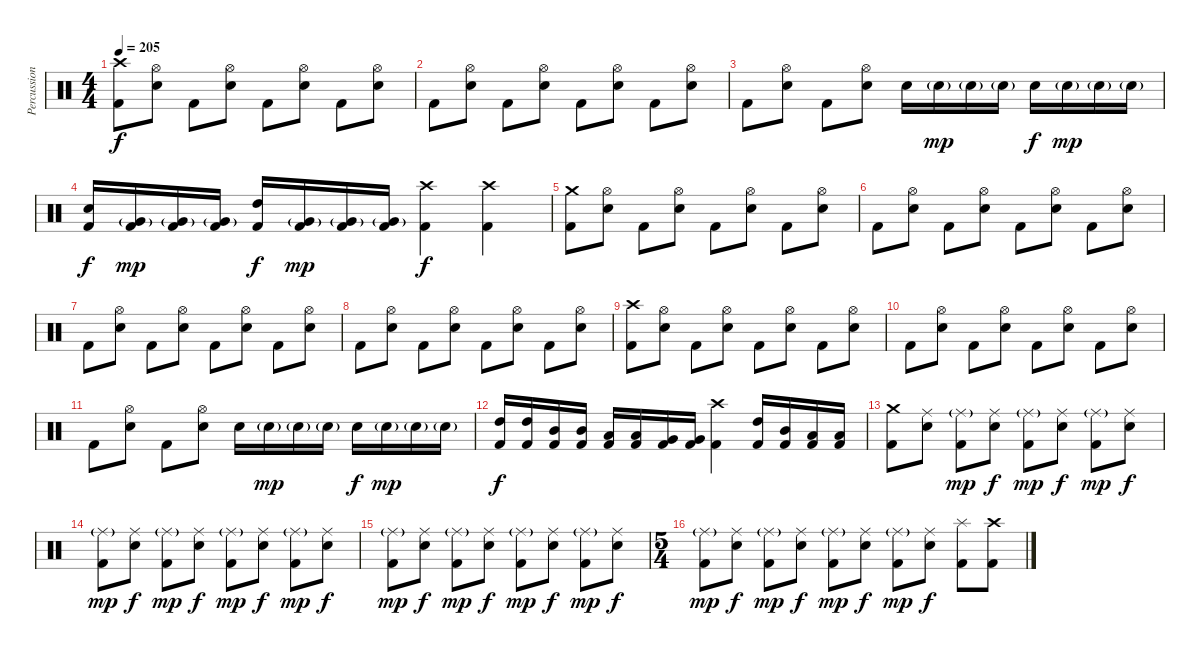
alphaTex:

\track ("Percussions" "Percussion") {instrument percussion}
\staff {score}
\articulation defaults
\ts (4 4)
\tempo 205
\clef neutral
\ks c
("Crash high (hit)" "Kick (hit) 2").8{dy f} ("Hi-Hat (open)" "Electric Snare (hit)").8 "Kick (hit) 2".8 ("Hi-Hat (open)" "Electric Snare (hit)").8 "Kick (hit) 2".8 ("Hi-Hat (open)" "Electric Snare (hit)").8 "Kick (hit) 2".8 ("Hi-Hat (open)" "Electric Snare (hit)").8 |
"Kick (hit) 2".8 ("Hi-Hat (open)" "Electric Snare (hit)").8 "Kick (hit) 2".8 ("Hi-Hat (open)" "Electric Snare (hit)").8 "Kick (hit) 2".8 ("Hi-Hat (open)" "Electric Snare (hit)").8 "Kick (hit) 2".8 ("Hi-Hat (open)" "Electric Snare (hit)").8 |
"Kick (hit) 2".8 ("Hi-Hat (open)" "Electric Snare (hit)").8 "Kick (hit) 2".8 ("Hi-Hat (open)" "Electric Snare (hit)").8 "Electric Snare (hit)".16 "Electric Snare (hit)"{g}.16{dy mp} "Electric Snare (hit)"{g}.16 "Electric Snare (hit)"{g}.16 "Electric Snare (hit)".16{dy f} "Electric Snare (hit)"{g}.16{dy mp} "Electric Snare (hit)"{g}.16 "Electric Snare (hit)"{g}.16 |
("Electric Snare (hit)" "Kick (hit) 2").16{dy f} ("Very Low Tom (hit)"{g} "Kick (hit) 2").16{dy mp} ("Very Low Tom (hit)"{g} "Kick (hit) 2").16 ("Very Low Tom (hit)"{g} "Kick (hit) 2").16 ("High Tom (hit)" "Kick (hit) 2").16{dy f} ("Very Low Tom (hit)"{g} "Kick (hit) 2").16{dy mp} ("Very Low Tom (hit)"{g} "Kick (hit) 2").16 ("Very Low Tom (hit)"{g} "Kick (hit) 2").16 ("Crash high (hit)" "Kick (hit) 2").4{dy f} ("Crash high (hit)" "Kick (hit) 2").4 |
("Crash medium (hit)" "Kick (hit) 2").8 ("Hi-Hat (open)" "Electric Snare (hit)").8 "Kick (hit) 2".8 ("Hi-Hat (open)" "Electric Snare (hit)").8 "Kick (hit) 2".8 ("Hi-Hat (open)" "Electric Snare (hit)").8 "Kick (hit) 2".8 ("Hi-Hat (open)" "Electric Snare (hit)").8 |
"Kick (hit) 2".8 ("Hi-Hat (open)" "Electric Snare (hit)").8 "Kick (hit) 2".8 ("Hi-Hat (open)" "Electric Snare (hit)").8 "Kick (hit) 2".8 ("Hi-Hat (open)" "Electric Snare (hit)").8 "Kick (hit) 2".8 ("Hi-Hat (open)" "Electric Snare (hit)").8 |
"Kick (hit) 2".8 ("Hi-Hat (open)" "Electric Snare (hit)").8 "Kick (hit) 2".8 ("Hi-Hat (open)" "Electric Snare (hit)").8 "Kick (hit) 2".8 ("Hi-Hat (open)" "Electric Snare (hit)").8 "Kick (hit) 2".8 ("Hi-Hat (open)" "Electric Snare (hit)").8 |
"Kick (hit) 2".8 ("Hi-Hat (open)" "Electric Snare (hit)").8 "Kick (hit) 2".8 ("Hi-Hat (open)" "Electric Snare (hit)").8 "Kick (hit) 2".8 ("Hi-Hat (open)" "Electric Snare (hit)").8 "Kick (hit) 2".8 ("Hi-Hat (open)" "Electric Snare (hit)").8 |
("Crash high (hit)" "Kick (hit) 2").8 ("Hi-Hat (open)" "Electric Snare (hit)").8 "Kick (hit) 2".8 ("Hi-Hat (open)" "Electric Snare (hit)").8 "Kick (hit) 2".8 ("Hi-Hat (open)" "Electric Snare (hit)").8 "Kick (hit) 2".8 ("Hi-Hat (open)" "Electric Snare (hit)").8 |
"Kick (hit) 2".8 ("Hi-Hat (open)" "Electric Snare (hit)").8 "Kick (hit) 2".8 ("Hi-Hat (open)" "Electric Snare (hit)").8 "Kick (hit) 2".8 ("Hi-Hat (open)" "Electric Snare (hit)").8 "Kick (hit) 2".8 ("Hi-Hat (open)" "Electric Snare (hit)").8 |
"Kick (hit) 2".8 ("Hi-Hat (open)" "Electric Snare (hit)").8 "Kick (hit) 2".8 ("Hi-Hat (open)" "Electric Snare (hit)").8 "Electric Snare (hit)".16 "Electric Snare (hit)"{g}.16{dy mp} "Electric Snare (hit)"{g}.16 "Electric Snare (hit)"{g}.16 "Electric Snare (hit)".16{dy f} "Electric Snare (hit)"{g}.16{dy mp} "Electric Snare (hit)"{g}.16 "Electric Snare (hit)"{g}.16 |
("High Tom (hit)" "Kick (hit) 2").16{dy f} ("High Tom (hit)" "Kick (hit) 2").16 ("Mid Tom (hit)" "Kick (hit) 2").16 ("Mid Tom (hit)" "Kick (hit) 2").16 ("Low Tom (hit)" "Kick (hit) 2").16 ("Low Tom (hit)" "Kick (hit) 2").16 ("Very Low Tom (hit)" "Kick (hit) 2").16 ("Very Low Tom (hit)" "Kick (hit) 2").16 ("Crash high (hit)" "Kick (hit) 2").4 ("High Tom (hit)" "Kick (hit) 2").16 ("Mid Tom (hit)" "Kick (hit) 2").16 ("Low Tom (hit)" "Kick (hit) 2").16 ("Low Tom (hit)" "Kick (hit) 2").16 |
("Crash medium (hit)" "Kick (hit) 2").8 ("Ride (middle)" "Electric Snare (hit)").8 ("Ride (middle)"{g} "Kick (hit) 2").8{dy mp} ("Ride (middle)" "Electric Snare (hit)").8{dy f} ("Ride (middle)"{g} "Kick (hit) 2").8{dy mp} ("Ride (middle)" "Electric Snare (hit)").8{dy f} ("Ride (middle)"{g} "Kick (hit) 2").8{dy mp} ("Ride (middle)" "Electric Snare (hit)").8{dy f} |
("Ride (middle)"{g} "Kick (hit) 2").8{dy mp} ("Ride (middle)" "Electric Snare (hit)").8{dy f} ("Ride (middle)"{g} "Kick (hit) 2").8{dy mp} ("Ride (middle)" "Electric Snare (hit)").8{dy f} ("Ride (middle)"{g} "Kick (hit) 2").8{dy mp} ("Ride (middle)" "Electric Snare (hit)").8{dy f} ("Ride (middle)"{g} "Kick (hit) 2").8{dy mp} ("Ride (middle)" "Electric Snare (hit)").8{dy f} |
("Ride (middle)"{g} "Kick (hit) 2").8{dy mp} ("Ride (middle)" "Electric Snare (hit)").8{dy f} ("Ride (middle)"{g} "Kick (hit) 2").8{dy mp} ("Ride (middle)" "Electric Snare (hit)").8{dy f} ("Ride (middle)"{g} "Kick (hit) 2").8{dy mp} ("Ride (middle)" "Electric Snare (hit)").8{dy f} ("Ride (middle)"{g} "Kick (hit) 2").8{dy mp} ("Ride (middle)" "Electric Snare (hit)").8{dy f} |
\ts (5 4)
("Ride (middle)"{g} "Kick (hit) 2").8{dy mp} ("Ride (middle)" "Electric Snare (hit)").8{dy f} ("Ride (middle)"{g} "Kick (hit) 2").8{dy mp} ("Ride (middle)" "Electric Snare (hit)").8{dy f} ("Ride (middle)"{g} "Kick (hit) 2").8{dy mp} ("Ride (middle)" "Electric Snare (hit)").8{dy f} ("Ride (middle)"{g} "Kick (hit) 2").8{dy mp} ("Ride (middle)" "Electric Snare (hit)").8{dy f} ("Splash (hit)" "Kick (hit) 2").8 ("Crash high (hit)" "Kick (hit) 2").8
